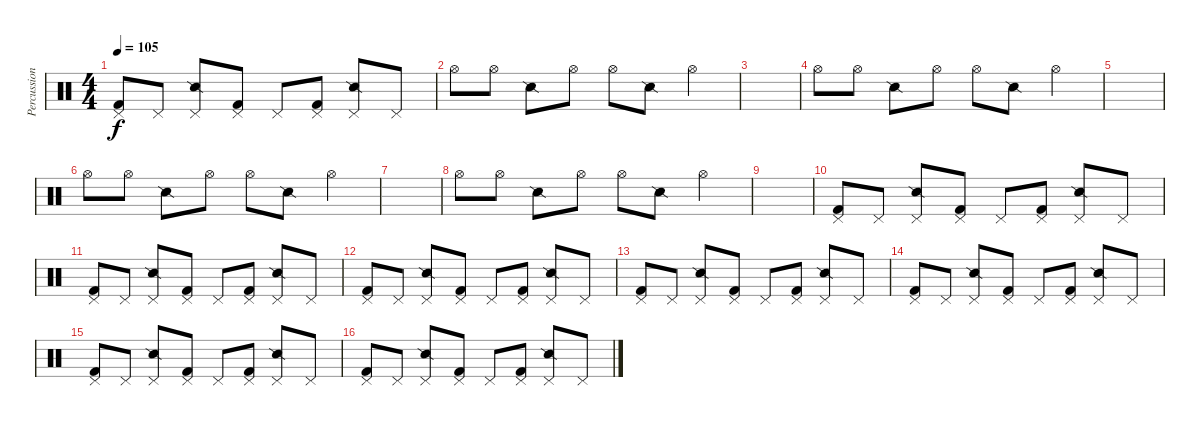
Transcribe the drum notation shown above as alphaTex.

\track ("Percussion" "Percussion") {instrument percussion}
\staff {score}
\articulation defaults
\ts (4 4)
\tempo 105
\clef neutral
\ks c
("Pedal Hi-Hat (hit)" "Kick (hit) 2").8{dy f} "Pedal Hi-Hat (hit)".8 ("Pedal Hi-Hat (hit)" "Snare (side stick) 2").8 ("Pedal Hi-Hat (hit)" "Kick (hit) 2").8 "Pedal Hi-Hat (hit)".8 ("Pedal Hi-Hat (hit)" "Kick (hit) 2").8 ("Pedal Hi-Hat (hit)" "Snare (side stick) 2").8 "Pedal Hi-Hat (hit)".8 |
"Hi-Hat (open)".8 "Hi-Hat (open)".8 "Snare (side stick) 2".8 "Hi-Hat (open)".8 "Hi-Hat (open)".8 "Snare (side stick) 2".8 "Hi-Hat (open)".4 |
|
"Hi-Hat (open)".8 "Hi-Hat (open)".8 "Snare (side stick) 2".8 "Hi-Hat (open)".8 "Hi-Hat (open)".8 "Snare (side stick) 2".8 "Hi-Hat (open)".4 |
|
"Hi-Hat (open)".8 "Hi-Hat (open)".8 "Snare (side stick) 2".8 "Hi-Hat (open)".8 "Hi-Hat (open)".8 "Snare (side stick) 2".8 "Hi-Hat (open)".4 |
|
"Hi-Hat (open)".8 "Hi-Hat (open)".8 "Snare (side stick) 2".8 "Hi-Hat (open)".8 "Hi-Hat (open)".8 "Snare (side stick) 2".8 "Hi-Hat (open)".4 |
|
("Pedal Hi-Hat (hit)" "Kick (hit) 2").8 "Pedal Hi-Hat (hit)".8 ("Pedal Hi-Hat (hit)" "Snare (side stick) 2").8 ("Pedal Hi-Hat (hit)" "Kick (hit) 2").8 "Pedal Hi-Hat (hit)".8 ("Pedal Hi-Hat (hit)" "Kick (hit) 2").8 ("Pedal Hi-Hat (hit)" "Snare (side stick) 2").8 "Pedal Hi-Hat (hit)".8 |
("Pedal Hi-Hat (hit)" "Kick (hit) 2").8 "Pedal Hi-Hat (hit)".8 ("Pedal Hi-Hat (hit)" "Snare (side stick) 2").8 ("Pedal Hi-Hat (hit)" "Kick (hit) 2").8 "Pedal Hi-Hat (hit)".8 ("Pedal Hi-Hat (hit)" "Kick (hit) 2").8 ("Pedal Hi-Hat (hit)" "Snare (side stick) 2").8 "Pedal Hi-Hat (hit)".8 |
("Pedal Hi-Hat (hit)" "Kick (hit) 2").8 "Pedal Hi-Hat (hit)".8 ("Pedal Hi-Hat (hit)" "Snare (side stick) 2").8 ("Pedal Hi-Hat (hit)" "Kick (hit) 2").8 "Pedal Hi-Hat (hit)".8 ("Pedal Hi-Hat (hit)" "Kick (hit) 2").8 ("Pedal Hi-Hat (hit)" "Snare (side stick) 2").8 "Pedal Hi-Hat (hit)".8 |
("Pedal Hi-Hat (hit)" "Kick (hit) 2").8 "Pedal Hi-Hat (hit)".8 ("Pedal Hi-Hat (hit)" "Snare (side stick) 2").8 ("Pedal Hi-Hat (hit)" "Kick (hit) 2").8 "Pedal Hi-Hat (hit)".8 ("Pedal Hi-Hat (hit)" "Kick (hit) 2").8 ("Pedal Hi-Hat (hit)" "Snare (side stick) 2").8 "Pedal Hi-Hat (hit)".8 |
("Pedal Hi-Hat (hit)" "Kick (hit) 2").8 "Pedal Hi-Hat (hit)".8 ("Pedal Hi-Hat (hit)" "Snare (side stick) 2").8 ("Pedal Hi-Hat (hit)" "Kick (hit) 2").8 "Pedal Hi-Hat (hit)".8 ("Pedal Hi-Hat (hit)" "Kick (hit) 2").8 ("Pedal Hi-Hat (hit)" "Snare (side stick) 2").8 "Pedal Hi-Hat (hit)".8 |
("Pedal Hi-Hat (hit)" "Kick (hit) 2").8 "Pedal Hi-Hat (hit)".8 ("Pedal Hi-Hat (hit)" "Snare (side stick) 2").8 ("Pedal Hi-Hat (hit)" "Kick (hit) 2").8 "Pedal Hi-Hat (hit)".8 ("Pedal Hi-Hat (hit)" "Kick (hit) 2").8 ("Pedal Hi-Hat (hit)" "Snare (side stick) 2").8 "Pedal Hi-Hat (hit)".8 |
("Pedal Hi-Hat (hit)" "Kick (hit) 2").8 "Pedal Hi-Hat (hit)".8 ("Pedal Hi-Hat (hit)" "Snare (side stick) 2").8 ("Pedal Hi-Hat (hit)" "Kick (hit) 2").8 "Pedal Hi-Hat (hit)".8 ("Pedal Hi-Hat (hit)" "Kick (hit) 2").8 ("Pedal Hi-Hat (hit)" "Snare (side stick) 2").8 "Pedal Hi-Hat (hit)".8
